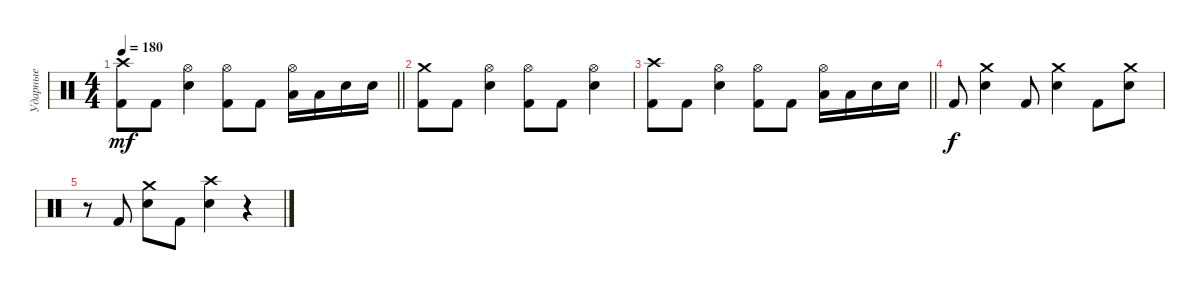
\track ("Ударные" "Ударные") {instrument percussion}
\staff {score}
\articulation defaults
\ts (4 4)
\tempo 180
\clef neutral
\barLineRight lightlight
\ks c
("Crash high (hit)" "Kick (hit) 2").8{dy mf} "Kick (hit) 2".8 ("Hi-Hat (open)" "Snare (hit) 2").4 ("Hi-Hat (open)" "Kick (hit) 2").8 "Kick (hit) 2".8 ("Hi-Hat (open)" "Low Tom (hit)").16 "Low Tom (hit)".16 "Snare (hit) 2".16 "Snare (hit) 2".16 |
("Crash medium (hit)" "Kick (hit) 2").8 "Kick (hit) 2".8 ("Hi-Hat (open)" "Snare (hit) 2").4 ("Hi-Hat (open)" "Kick (hit) 2").8 "Kick (hit) 2".8 ("Hi-Hat (open)" "Snare (hit) 2").4 |
\barLineRight lightlight
("Crash high (hit)" "Kick (hit) 2").8 "Kick (hit) 2".8 ("Hi-Hat (open)" "Snare (hit) 2").4 ("Hi-Hat (open)" "Kick (hit) 2").8 "Kick (hit) 2".8 ("Hi-Hat (open)" "Low Tom (hit)").16 "Low Tom (hit)".16 "Snare (hit) 2".16 "Snare (hit) 2".16 |
"Kick (hit) 2".8{dy f} ("Crash medium (hit)" "Snare (hit) 2").4 "Kick (hit) 2".8 ("Crash medium (hit)" "Snare (hit) 2").4 "Kick (hit) 2".8 ("Crash medium (hit)" "Snare (hit) 2").8 |
r.8 "Kick (hit) 2".8 ("Crash medium (hit)" "Snare (hit) 2").8 "Kick (hit) 2".8 ("Crash high (hit)" "Snare (hit) 2").4 r.4
